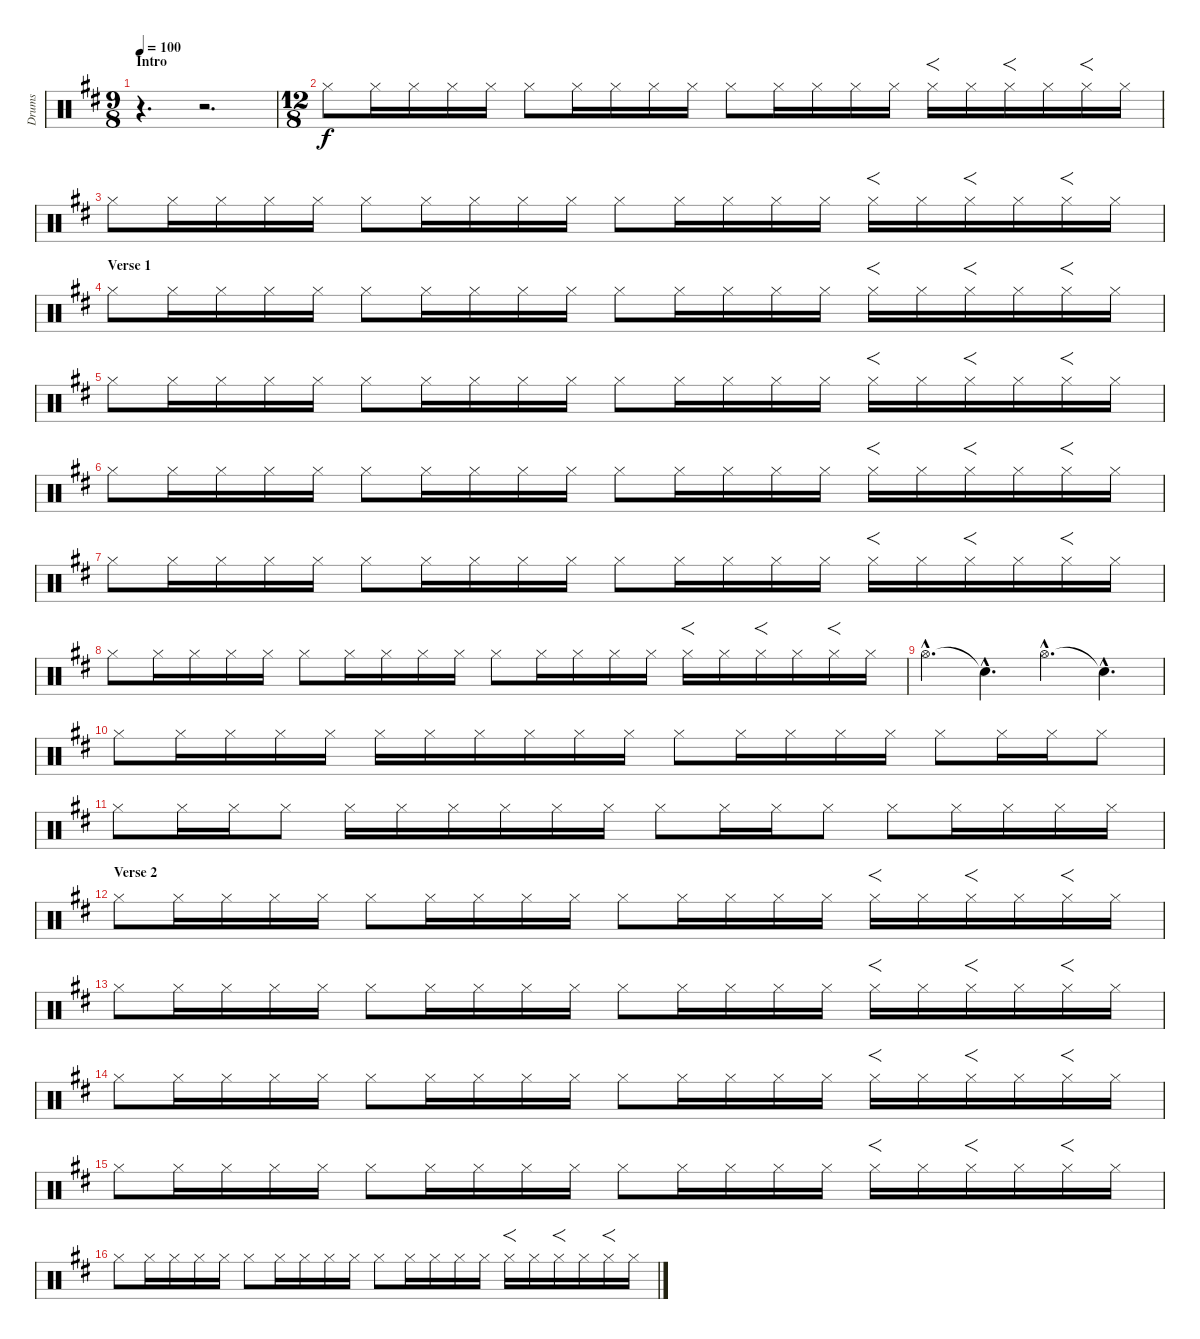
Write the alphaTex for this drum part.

\track ("Drums" "Drums") {instrument percussion}
\staff {score}
\articulation defaults
\ts (9 8)
\section ("" "Intro")
\tempo 100
\clef neutral
\ks d
r.4{d dy f} r.2{d} |
\ts (12 8)
"Hi-Hat (closed)".8 "Hi-Hat (closed)".16 "Hi-Hat (closed)".16 "Hi-Hat (closed)".16 "Hi-Hat (closed)".16 "Hi-Hat (closed)".8 "Hi-Hat (closed)".16 "Hi-Hat (closed)".16 "Hi-Hat (closed)".16 "Hi-Hat (closed)".16 "Hi-Hat (closed)".8 "Hi-Hat (closed)".16 "Hi-Hat (closed)".16 "Hi-Hat (closed)".16 "Hi-Hat (closed)".16 "Hi-Hat (closed)".16{f} "Hi-Hat (closed)".16 "Hi-Hat (closed)".16{f} "Hi-Hat (closed)".16 "Hi-Hat (closed)".16{f} "Hi-Hat (closed)".16 |
"Hi-Hat (closed)".8 "Hi-Hat (closed)".16 "Hi-Hat (closed)".16 "Hi-Hat (closed)".16 "Hi-Hat (closed)".16 "Hi-Hat (closed)".8 "Hi-Hat (closed)".16 "Hi-Hat (closed)".16 "Hi-Hat (closed)".16 "Hi-Hat (closed)".16 "Hi-Hat (closed)".8 "Hi-Hat (closed)".16 "Hi-Hat (closed)".16 "Hi-Hat (closed)".16 "Hi-Hat (closed)".16 "Hi-Hat (closed)".16{f} "Hi-Hat (closed)".16 "Hi-Hat (closed)".16{f} "Hi-Hat (closed)".16 "Hi-Hat (closed)".16{f} "Hi-Hat (closed)".16 |
\section ("" "Verse 1")
"Hi-Hat (closed)".8 "Hi-Hat (closed)".16 "Hi-Hat (closed)".16 "Hi-Hat (closed)".16 "Hi-Hat (closed)".16 "Hi-Hat (closed)".8 "Hi-Hat (closed)".16 "Hi-Hat (closed)".16 "Hi-Hat (closed)".16 "Hi-Hat (closed)".16 "Hi-Hat (closed)".8 "Hi-Hat (closed)".16 "Hi-Hat (closed)".16 "Hi-Hat (closed)".16 "Hi-Hat (closed)".16 "Hi-Hat (closed)".16{f} "Hi-Hat (closed)".16 "Hi-Hat (closed)".16{f} "Hi-Hat (closed)".16 "Hi-Hat (closed)".16{f} "Hi-Hat (closed)".16 |
"Hi-Hat (closed)".8 "Hi-Hat (closed)".16 "Hi-Hat (closed)".16 "Hi-Hat (closed)".16 "Hi-Hat (closed)".16 "Hi-Hat (closed)".8 "Hi-Hat (closed)".16 "Hi-Hat (closed)".16 "Hi-Hat (closed)".16 "Hi-Hat (closed)".16 "Hi-Hat (closed)".8 "Hi-Hat (closed)".16 "Hi-Hat (closed)".16 "Hi-Hat (closed)".16 "Hi-Hat (closed)".16 "Hi-Hat (closed)".16{f} "Hi-Hat (closed)".16 "Hi-Hat (closed)".16{f} "Hi-Hat (closed)".16 "Hi-Hat (closed)".16{f} "Hi-Hat (closed)".16 |
"Hi-Hat (closed)".8 "Hi-Hat (closed)".16 "Hi-Hat (closed)".16 "Hi-Hat (closed)".16 "Hi-Hat (closed)".16 "Hi-Hat (closed)".8 "Hi-Hat (closed)".16 "Hi-Hat (closed)".16 "Hi-Hat (closed)".16 "Hi-Hat (closed)".16 "Hi-Hat (closed)".8 "Hi-Hat (closed)".16 "Hi-Hat (closed)".16 "Hi-Hat (closed)".16 "Hi-Hat (closed)".16 "Hi-Hat (closed)".16{f} "Hi-Hat (closed)".16 "Hi-Hat (closed)".16{f} "Hi-Hat (closed)".16 "Hi-Hat (closed)".16{f} "Hi-Hat (closed)".16 |
"Hi-Hat (closed)".8 "Hi-Hat (closed)".16 "Hi-Hat (closed)".16 "Hi-Hat (closed)".16 "Hi-Hat (closed)".16 "Hi-Hat (closed)".8 "Hi-Hat (closed)".16 "Hi-Hat (closed)".16 "Hi-Hat (closed)".16 "Hi-Hat (closed)".16 "Hi-Hat (closed)".8 "Hi-Hat (closed)".16 "Hi-Hat (closed)".16 "Hi-Hat (closed)".16 "Hi-Hat (closed)".16 "Hi-Hat (closed)".16{f} "Hi-Hat (closed)".16 "Hi-Hat (closed)".16{f} "Hi-Hat (closed)".16 "Hi-Hat (closed)".16{f} "Hi-Hat (closed)".16 |
"Hi-Hat (closed)".8 "Hi-Hat (closed)".16 "Hi-Hat (closed)".16 "Hi-Hat (closed)".16 "Hi-Hat (closed)".16 "Hi-Hat (closed)".8 "Hi-Hat (closed)".16 "Hi-Hat (closed)".16 "Hi-Hat (closed)".16 "Hi-Hat (closed)".16 "Hi-Hat (closed)".8 "Hi-Hat (closed)".16 "Hi-Hat (closed)".16 "Hi-Hat (closed)".16 "Hi-Hat (closed)".16 "Hi-Hat (closed)".16{f} "Hi-Hat (closed)".16 "Hi-Hat (closed)".16{f} "Hi-Hat (closed)".16 "Hi-Hat (closed)".16{f} "Hi-Hat (closed)".16 |
"Hi-Hat (open)"{hac}.4{d} "Snare (hit)"{hac t}.4{d} "Hi-Hat (open)"{hac}.4{d} "Snare (hit)"{hac t}.4{d} |
"Hi-Hat (closed)".8 "Hi-Hat (closed)".16 "Hi-Hat (closed)".16 "Hi-Hat (closed)".16 "Hi-Hat (closed)".16 "Hi-Hat (closed)".16 "Hi-Hat (closed)".16 "Hi-Hat (closed)".16 "Hi-Hat (closed)".16 "Hi-Hat (closed)".16 "Hi-Hat (closed)".16 "Hi-Hat (closed)".8 "Hi-Hat (closed)".16 "Hi-Hat (closed)".16 "Hi-Hat (closed)".16 "Hi-Hat (closed)".16 "Hi-Hat (closed)".8 "Hi-Hat (closed)".16 "Hi-Hat (closed)".16 "Hi-Hat (closed)".8 |
"Hi-Hat (closed)".8 "Hi-Hat (closed)".16 "Hi-Hat (closed)".16 "Hi-Hat (closed)".8 "Hi-Hat (closed)".16 "Hi-Hat (closed)".16 "Hi-Hat (closed)".16 "Hi-Hat (closed)".16 "Hi-Hat (closed)".16 "Hi-Hat (closed)".16 "Hi-Hat (closed)".8 "Hi-Hat (closed)".16 "Hi-Hat (closed)".16 "Hi-Hat (closed)".8 "Hi-Hat (closed)".8 "Hi-Hat (closed)".16 "Hi-Hat (closed)".16 "Hi-Hat (closed)".16 "Hi-Hat (closed)".16 |
\section ("" "Verse 2")
"Hi-Hat (closed)".8 "Hi-Hat (closed)".16 "Hi-Hat (closed)".16 "Hi-Hat (closed)".16 "Hi-Hat (closed)".16 "Hi-Hat (closed)".8 "Hi-Hat (closed)".16 "Hi-Hat (closed)".16 "Hi-Hat (closed)".16 "Hi-Hat (closed)".16 "Hi-Hat (closed)".8 "Hi-Hat (closed)".16 "Hi-Hat (closed)".16 "Hi-Hat (closed)".16 "Hi-Hat (closed)".16 "Hi-Hat (closed)".16{f} "Hi-Hat (closed)".16 "Hi-Hat (closed)".16{f} "Hi-Hat (closed)".16 "Hi-Hat (closed)".16{f} "Hi-Hat (closed)".16 |
"Hi-Hat (closed)".8 "Hi-Hat (closed)".16 "Hi-Hat (closed)".16 "Hi-Hat (closed)".16 "Hi-Hat (closed)".16 "Hi-Hat (closed)".8 "Hi-Hat (closed)".16 "Hi-Hat (closed)".16 "Hi-Hat (closed)".16 "Hi-Hat (closed)".16 "Hi-Hat (closed)".8 "Hi-Hat (closed)".16 "Hi-Hat (closed)".16 "Hi-Hat (closed)".16 "Hi-Hat (closed)".16 "Hi-Hat (closed)".16{f} "Hi-Hat (closed)".16 "Hi-Hat (closed)".16{f} "Hi-Hat (closed)".16 "Hi-Hat (closed)".16{f} "Hi-Hat (closed)".16 |
"Hi-Hat (closed)".8 "Hi-Hat (closed)".16 "Hi-Hat (closed)".16 "Hi-Hat (closed)".16 "Hi-Hat (closed)".16 "Hi-Hat (closed)".8 "Hi-Hat (closed)".16 "Hi-Hat (closed)".16 "Hi-Hat (closed)".16 "Hi-Hat (closed)".16 "Hi-Hat (closed)".8 "Hi-Hat (closed)".16 "Hi-Hat (closed)".16 "Hi-Hat (closed)".16 "Hi-Hat (closed)".16 "Hi-Hat (closed)".16{f} "Hi-Hat (closed)".16 "Hi-Hat (closed)".16{f} "Hi-Hat (closed)".16 "Hi-Hat (closed)".16{f} "Hi-Hat (closed)".16 |
"Hi-Hat (closed)".8 "Hi-Hat (closed)".16 "Hi-Hat (closed)".16 "Hi-Hat (closed)".16 "Hi-Hat (closed)".16 "Hi-Hat (closed)".8 "Hi-Hat (closed)".16 "Hi-Hat (closed)".16 "Hi-Hat (closed)".16 "Hi-Hat (closed)".16 "Hi-Hat (closed)".8 "Hi-Hat (closed)".16 "Hi-Hat (closed)".16 "Hi-Hat (closed)".16 "Hi-Hat (closed)".16 "Hi-Hat (closed)".16{f} "Hi-Hat (closed)".16 "Hi-Hat (closed)".16{f} "Hi-Hat (closed)".16 "Hi-Hat (closed)".16{f} "Hi-Hat (closed)".16 |
"Hi-Hat (closed)".8 "Hi-Hat (closed)".16 "Hi-Hat (closed)".16 "Hi-Hat (closed)".16 "Hi-Hat (closed)".16 "Hi-Hat (closed)".8 "Hi-Hat (closed)".16 "Hi-Hat (closed)".16 "Hi-Hat (closed)".16 "Hi-Hat (closed)".16 "Hi-Hat (closed)".8 "Hi-Hat (closed)".16 "Hi-Hat (closed)".16 "Hi-Hat (closed)".16 "Hi-Hat (closed)".16 "Hi-Hat (closed)".16{f} "Hi-Hat (closed)".16 "Hi-Hat (closed)".16{f} "Hi-Hat (closed)".16 "Hi-Hat (closed)".16{f} "Hi-Hat (closed)".16
